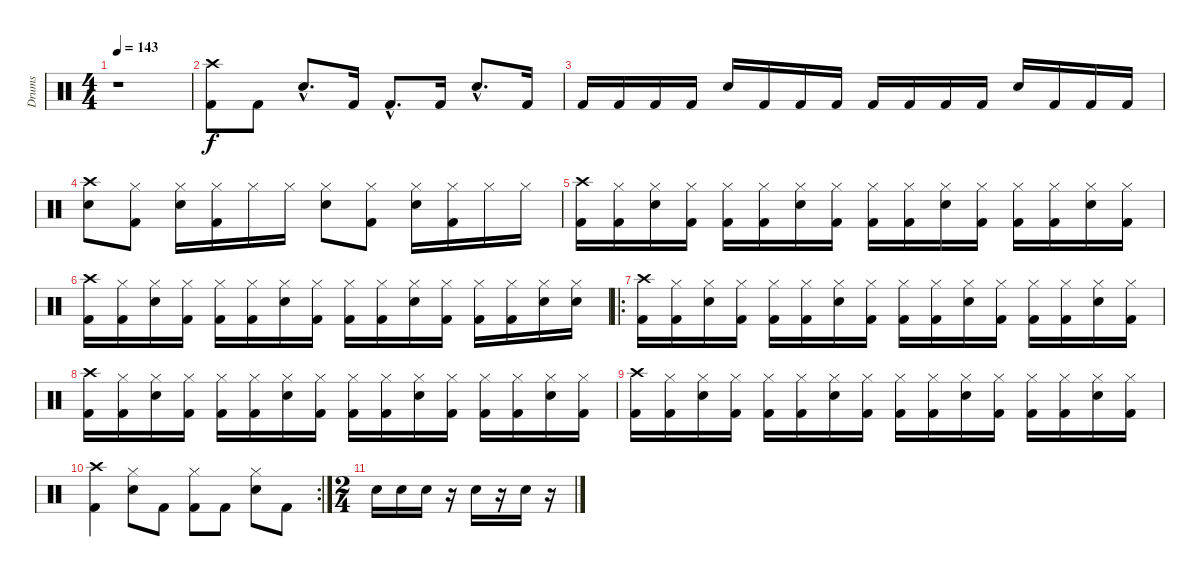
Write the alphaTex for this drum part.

\track ("Drums" "Drums") {instrument percussion}
\staff {score}
\articulation defaults
\ts (4 4)
\tempo 143
\clef neutral
\ks c
r.1{dy f} |
("Crash high (hit)" "Kick (hit) 2").8 "Kick (hit) 2".8 "Electric Snare (hit)"{hac}.8{d} "Kick (hit) 2".16 "Kick (hit) 2"{hac}.8{d} "Kick (hit) 2".16 "Electric Snare (hit)"{hac}.8{d} "Kick (hit) 2".16 |
"Kick (hit) 2".16 "Kick (hit) 2".16 "Kick (hit) 2".16 "Kick (hit) 2".16 "Electric Snare (hit)".16 "Kick (hit) 2".16 "Kick (hit) 2".16 "Kick (hit) 2".16 "Kick (hit) 2".16 "Kick (hit) 2".16 "Kick (hit) 2".16 "Kick (hit) 2".16 "Electric Snare (hit)".16 "Kick (hit) 2".16 "Kick (hit) 2".16 "Kick (hit) 2".16 |
("Crash high (hit)" "Electric Snare (hit)").8 ("Hi-Hat (closed)" "Kick (hit) 2").8 ("Hi-Hat (closed)" "Electric Snare (hit)").16 ("Hi-Hat (closed)" "Kick (hit) 2").16 "Hi-Hat (closed)".16 "Hi-Hat (closed)".16 ("Hi-Hat (closed)" "Electric Snare (hit)").8 ("Hi-Hat (closed)" "Kick (hit) 2").8 ("Hi-Hat (closed)" "Electric Snare (hit)").16 ("Hi-Hat (closed)" "Kick (hit) 2").16 "Hi-Hat (closed)".16 "Hi-Hat (closed)".16 |
("Crash high (hit)" "Kick (hit) 2").16 ("Hi-Hat (closed)" "Kick (hit) 2").16 ("Hi-Hat (closed)" "Electric Snare (hit)").16 ("Hi-Hat (closed)" "Kick (hit) 2").16 ("Hi-Hat (closed)" "Kick (hit) 2").16 ("Hi-Hat (closed)" "Kick (hit) 2").16 ("Hi-Hat (closed)" "Electric Snare (hit)").16 ("Hi-Hat (closed)" "Kick (hit) 2").16 ("Hi-Hat (closed)" "Kick (hit) 2").16 ("Hi-Hat (closed)" "Kick (hit) 2").16 ("Hi-Hat (closed)" "Electric Snare (hit)").16 ("Hi-Hat (closed)" "Kick (hit) 2").16 ("Hi-Hat (closed)" "Kick (hit) 2").16 ("Hi-Hat (closed)" "Kick (hit) 2").16 ("Hi-Hat (closed)" "Electric Snare (hit)").16 ("Hi-Hat (closed)" "Kick (hit) 2").16 |
("Crash high (hit)" "Kick (hit) 2").16 ("Hi-Hat (closed)" "Kick (hit) 2").16 ("Hi-Hat (closed)" "Electric Snare (hit)").16 ("Hi-Hat (closed)" "Kick (hit) 2").16 ("Hi-Hat (closed)" "Kick (hit) 2").16 ("Hi-Hat (closed)" "Kick (hit) 2").16 ("Hi-Hat (closed)" "Electric Snare (hit)").16 ("Hi-Hat (closed)" "Kick (hit) 2").16 ("Hi-Hat (closed)" "Kick (hit) 2").16 ("Hi-Hat (closed)" "Kick (hit) 2").16 ("Hi-Hat (closed)" "Electric Snare (hit)").16 ("Hi-Hat (closed)" "Kick (hit) 2").16 ("Hi-Hat (closed)" "Kick (hit) 2").16 ("Hi-Hat (closed)" "Kick (hit) 2").16 ("Hi-Hat (closed)" "Electric Snare (hit)").16 ("Hi-Hat (closed)" "Electric Snare (hit)").16 |
\ro
("Crash high (hit)" "Kick (hit) 2").16 ("Hi-Hat (closed)" "Kick (hit) 2").16 ("Hi-Hat (closed)" "Electric Snare (hit)").16 ("Hi-Hat (closed)" "Kick (hit) 2").16 ("Hi-Hat (closed)" "Kick (hit) 2").16 ("Hi-Hat (closed)" "Kick (hit) 2").16 ("Hi-Hat (closed)" "Electric Snare (hit)").16 ("Hi-Hat (closed)" "Kick (hit) 2").16 ("Hi-Hat (closed)" "Kick (hit) 2").16 ("Hi-Hat (closed)" "Kick (hit) 2").16 ("Hi-Hat (closed)" "Electric Snare (hit)").16 ("Hi-Hat (closed)" "Kick (hit) 2").16 ("Hi-Hat (closed)" "Kick (hit) 2").16 ("Hi-Hat (closed)" "Kick (hit) 2").16 ("Hi-Hat (closed)" "Electric Snare (hit)").16 ("Hi-Hat (closed)" "Kick (hit) 2").16 |
("Crash high (hit)" "Kick (hit) 2").16 ("Hi-Hat (closed)" "Kick (hit) 2").16 ("Hi-Hat (closed)" "Electric Snare (hit)").16 ("Hi-Hat (closed)" "Kick (hit) 2").16 ("Hi-Hat (closed)" "Kick (hit) 2").16 ("Hi-Hat (closed)" "Kick (hit) 2").16 ("Hi-Hat (closed)" "Electric Snare (hit)").16 ("Hi-Hat (closed)" "Kick (hit) 2").16 ("Hi-Hat (closed)" "Kick (hit) 2").16 ("Hi-Hat (closed)" "Kick (hit) 2").16 ("Hi-Hat (closed)" "Electric Snare (hit)").16 ("Hi-Hat (closed)" "Kick (hit) 2").16 ("Hi-Hat (closed)" "Kick (hit) 2").16 ("Hi-Hat (closed)" "Kick (hit) 2").16 ("Hi-Hat (closed)" "Electric Snare (hit)").16 ("Hi-Hat (closed)" "Kick (hit) 2").16 |
("Crash high (hit)" "Kick (hit) 2").16 ("Hi-Hat (closed)" "Kick (hit) 2").16 ("Hi-Hat (closed)" "Electric Snare (hit)").16 ("Hi-Hat (closed)" "Kick (hit) 2").16 ("Hi-Hat (closed)" "Kick (hit) 2").16 ("Hi-Hat (closed)" "Kick (hit) 2").16 ("Hi-Hat (closed)" "Electric Snare (hit)").16 ("Hi-Hat (closed)" "Kick (hit) 2").16 ("Hi-Hat (closed)" "Kick (hit) 2").16 ("Hi-Hat (closed)" "Kick (hit) 2").16 ("Hi-Hat (closed)" "Electric Snare (hit)").16 ("Hi-Hat (closed)" "Kick (hit) 2").16 ("Hi-Hat (closed)" "Kick (hit) 2").16 ("Hi-Hat (closed)" "Kick (hit) 2").16 ("Hi-Hat (closed)" "Electric Snare (hit)").16 ("Hi-Hat (closed)" "Kick (hit) 2").16 |
\rc 2
("Crash high (hit)" "Kick (hit) 2").4 ("Hi-Hat (closed)" "Electric Snare (hit)").8 "Kick (hit) 2".8 ("Hi-Hat (closed)" "Kick (hit) 2").8 "Kick (hit) 2".8 ("Hi-Hat (closed)" "Electric Snare (hit)").8 "Kick (hit) 2".8 |
\ts (2 4)
"Electric Snare (hit)".16 "Electric Snare (hit)".16 "Electric Snare (hit)".16 r.16 "Electric Snare (hit)".16 r.16 "Electric Snare (hit)".16 r.16
